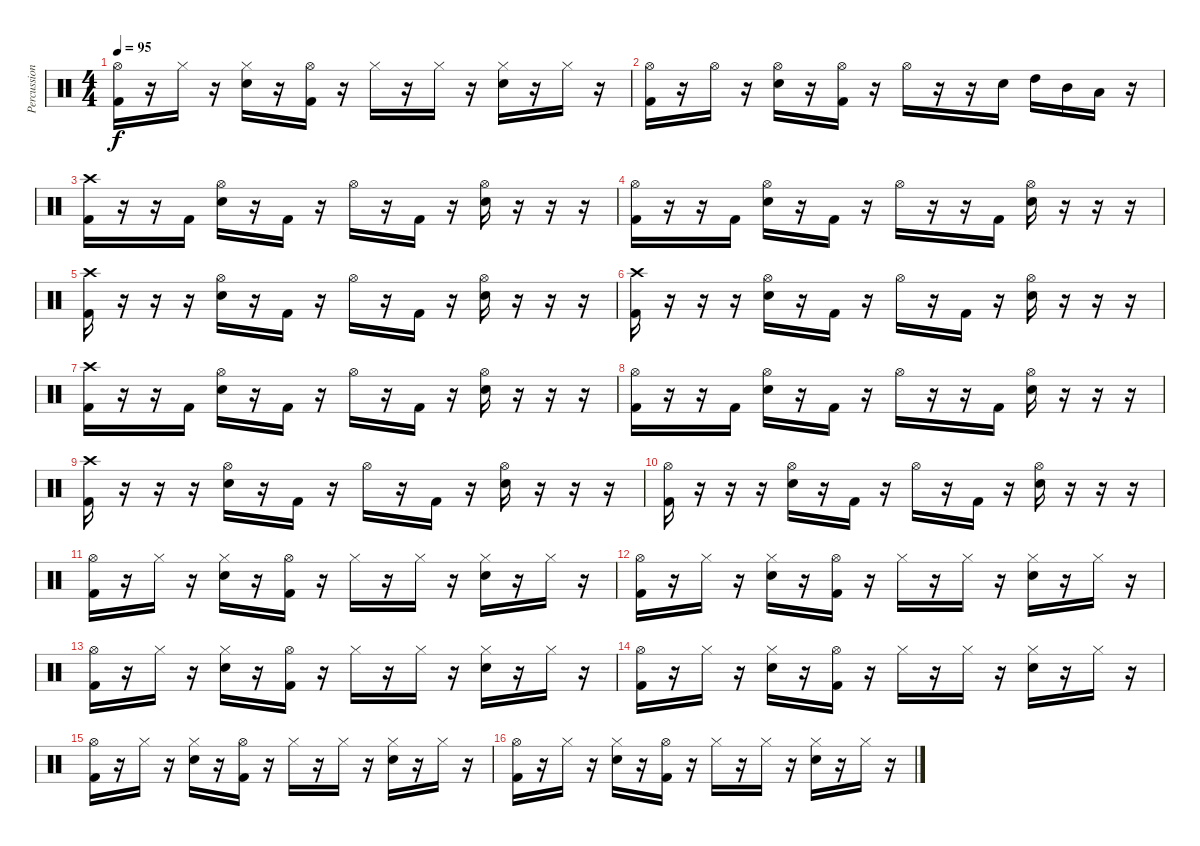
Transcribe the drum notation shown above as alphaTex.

\track ("Percussion" "Percussion") {instrument percussion}
\staff {score}
\articulation defaults
\ts (4 4)
\tempo 95
\clef neutral
\ks c
("Hi-Hat (open)" "Kick (hit) 2").16{dy f} r.16 "Hi-Hat (closed)".16 r.16 ("Hi-Hat (closed)" "Snare (hit) 2").16 r.16 ("Hi-Hat (open)" "Kick (hit) 2").16 r.16 "Hi-Hat (closed)".16 r.16 "Hi-Hat (closed)".16 r.16 ("Hi-Hat (closed)" "Snare (hit) 2").16 r.16 "Hi-Hat (closed)".16 r.16 |
("Hi-Hat (open)" "Kick (hit) 2").16 r.16 "Hi-Hat (open)".16 r.16 ("Hi-Hat (open)" "Snare (hit) 2").16 r.16 ("Hi-Hat (open)" "Kick (hit) 2").16 r.16 "Hi-Hat (open)".16 r.16 r.16 "Snare (hit) 2".16 "High Tom (hit)".16 "Mid Tom (hit)".16 "Low Floor Tom (hit)".16 r.16 |
("Crash high (hit)" "Kick (hit) 2").16 r.16 r.16 "Kick (hit) 2".16 ("Hi-Hat (open)" "Snare (hit) 2").16 r.16 "Kick (hit) 2".16 r.16 "Hi-Hat (open)".16 r.16 "Kick (hit) 2".16 r.16 ("Hi-Hat (open)" "Snare (hit) 2").16 r.16 r.16 r.16 |
("Hi-Hat (open)" "Kick (hit) 2").16 r.16 r.16 "Kick (hit) 2".16 ("Hi-Hat (open)" "Snare (hit) 2").16 r.16 "Kick (hit) 2".16 r.16 "Hi-Hat (open)".16 r.16 r.16 "Kick (hit) 2".16 ("Hi-Hat (open)" "Snare (hit) 2").16 r.16 r.16 r.16 |
("Crash high (hit)" "Kick (hit) 2").16 r.16 r.16 r.16 ("Hi-Hat (open)" "Snare (hit) 2").16 r.16 "Kick (hit) 2".16 r.16 "Hi-Hat (open)".16 r.16 "Kick (hit) 2".16 r.16 ("Hi-Hat (open)" "Snare (hit) 2").16 r.16 r.16 r.16 |
("Crash high (hit)" "Kick (hit) 2").16 r.16 r.16 r.16 ("Hi-Hat (open)" "Snare (hit) 2").16 r.16 "Kick (hit) 2".16 r.16 "Hi-Hat (open)".16 r.16 "Kick (hit) 2".16 r.16 ("Hi-Hat (open)" "Snare (hit) 2").16 r.16 r.16 r.16 |
("Crash high (hit)" "Kick (hit) 2").16 r.16 r.16 "Kick (hit) 2".16 ("Hi-Hat (open)" "Snare (hit) 2").16 r.16 "Kick (hit) 2".16 r.16 "Hi-Hat (open)".16 r.16 "Kick (hit) 2".16 r.16 ("Hi-Hat (open)" "Snare (hit) 2").16 r.16 r.16 r.16 |
("Hi-Hat (open)" "Kick (hit) 2").16 r.16 r.16 "Kick (hit) 2".16 ("Hi-Hat (open)" "Snare (hit) 2").16 r.16 "Kick (hit) 2".16 r.16 "Hi-Hat (open)".16 r.16 r.16 "Kick (hit) 2".16 ("Hi-Hat (open)" "Snare (hit) 2").16 r.16 r.16 r.16 |
("Crash high (hit)" "Kick (hit) 2").16 r.16 r.16 r.16 ("Hi-Hat (open)" "Snare (hit) 2").16 r.16 "Kick (hit) 2".16 r.16 "Hi-Hat (open)".16 r.16 "Kick (hit) 2".16 r.16 ("Hi-Hat (open)" "Snare (hit) 2").16 r.16 r.16 r.16 |
("Hi-Hat (open)" "Kick (hit) 2").16 r.16 r.16 r.16 ("Hi-Hat (open)" "Snare (hit) 2").16 r.16 "Kick (hit) 2".16 r.16 "Hi-Hat (open)".16 r.16 "Kick (hit) 2".16 r.16 ("Hi-Hat (open)" "Snare (hit) 2").16 r.16 r.16 r.16 |
("Hi-Hat (open)" "Kick (hit) 2").16 r.16 "Hi-Hat (closed)".16 r.16 ("Hi-Hat (closed)" "Snare (hit) 2").16 r.16 ("Hi-Hat (open)" "Kick (hit) 2").16 r.16 "Hi-Hat (closed)".16 r.16 "Hi-Hat (closed)".16 r.16 ("Hi-Hat (closed)" "Snare (hit) 2").16 r.16 "Hi-Hat (closed)".16 r.16 |
("Hi-Hat (open)" "Kick (hit) 2").16 r.16 "Hi-Hat (closed)".16 r.16 ("Hi-Hat (closed)" "Snare (hit) 2").16 r.16 ("Hi-Hat (open)" "Kick (hit) 2").16 r.16 "Hi-Hat (closed)".16 r.16 "Hi-Hat (closed)".16 r.16 ("Hi-Hat (closed)" "Snare (hit) 2").16 r.16 "Hi-Hat (closed)".16 r.16 |
("Hi-Hat (open)" "Kick (hit) 2").16 r.16 "Hi-Hat (closed)".16 r.16 ("Hi-Hat (closed)" "Snare (hit) 2").16 r.16 ("Hi-Hat (open)" "Kick (hit) 2").16 r.16 "Hi-Hat (closed)".16 r.16 "Hi-Hat (closed)".16 r.16 ("Hi-Hat (closed)" "Snare (hit) 2").16 r.16 "Hi-Hat (closed)".16 r.16 |
("Hi-Hat (open)" "Kick (hit) 2").16 r.16 "Hi-Hat (closed)".16 r.16 ("Hi-Hat (closed)" "Snare (hit) 2").16 r.16 ("Hi-Hat (open)" "Kick (hit) 2").16 r.16 "Hi-Hat (closed)".16 r.16 "Hi-Hat (closed)".16 r.16 ("Hi-Hat (closed)" "Snare (hit) 2").16 r.16 "Hi-Hat (closed)".16 r.16 |
("Hi-Hat (open)" "Kick (hit) 2").16 r.16 "Hi-Hat (closed)".16 r.16 ("Hi-Hat (closed)" "Snare (hit) 2").16 r.16 ("Hi-Hat (open)" "Kick (hit) 2").16 r.16 "Hi-Hat (closed)".16 r.16 "Hi-Hat (closed)".16 r.16 ("Hi-Hat (closed)" "Snare (hit) 2").16 r.16 "Hi-Hat (closed)".16 r.16 |
("Hi-Hat (open)" "Kick (hit) 2").16 r.16 "Hi-Hat (closed)".16 r.16 ("Hi-Hat (closed)" "Snare (hit) 2").16 r.16 ("Hi-Hat (open)" "Kick (hit) 2").16 r.16 "Hi-Hat (closed)".16 r.16 "Hi-Hat (closed)".16 r.16 ("Hi-Hat (closed)" "Snare (hit) 2").16 r.16 "Hi-Hat (closed)".16 r.16
